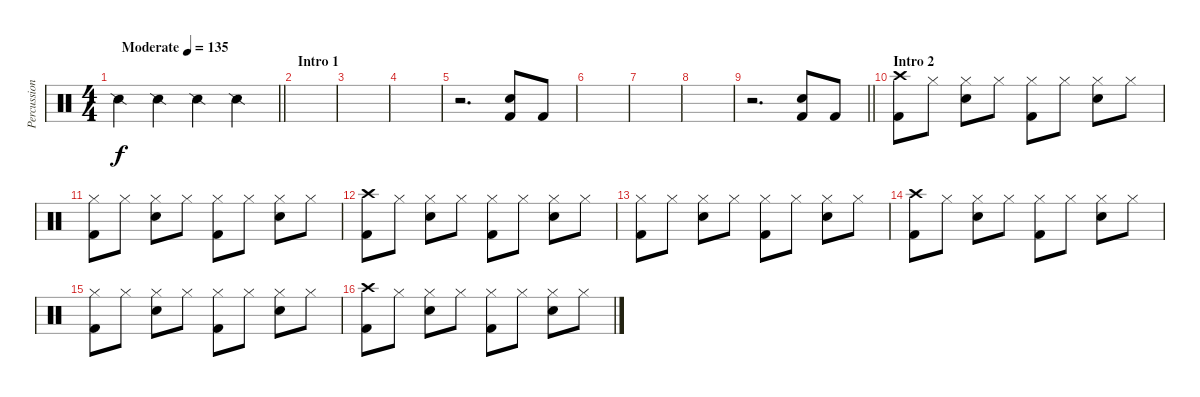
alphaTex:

\track ("Percussion" "Percussion") {instrument percussion}
\staff {score}
\articulation defaults
\ts (4 4)
\tempo (135 "Moderate")
\clef neutral
\barLineRight lightlight
\ks c "Snare (side stick) 2".4{dy f} "Snare (side stick) 2".4 "Snare (side stick) 2".4 "Snare (side stick) 2".4
|
\section ("" "Intro 1")
|
|
|
r.2{d} ("Electric Snare (hit)" "Kick (hit) 2").8 "Kick (hit) 2".8 |
|
|
|
\barLineRight lightlight
r.2{d} ("Electric Snare (hit)" "Kick (hit) 2").8 "Kick (hit) 2".8 |
\section ("" "Intro 2")
("Crash high (hit)" "Kick (hit) 2").8 "Hi-Hat (closed)".8 ("Hi-Hat (closed)" "Electric Snare (hit)").8 "Hi-Hat (closed)".8 ("Hi-Hat (closed)" "Kick (hit) 2").8 "Hi-Hat (closed)".8 ("Hi-Hat (closed)" "Electric Snare (hit)").8 "Hi-Hat (closed)".8 |
("Hi-Hat (closed)" "Kick (hit) 2").8 "Hi-Hat (closed)".8 ("Hi-Hat (closed)" "Electric Snare (hit)").8 "Hi-Hat (closed)".8 ("Hi-Hat (closed)" "Kick (hit) 2").8 "Hi-Hat (closed)".8 ("Hi-Hat (closed)" "Electric Snare (hit)").8 "Hi-Hat (closed)".8 |
("Crash high (hit)" "Kick (hit) 2").8 "Hi-Hat (closed)".8 ("Hi-Hat (closed)" "Electric Snare (hit)").8 "Hi-Hat (closed)".8 ("Hi-Hat (closed)" "Kick (hit) 2").8 "Hi-Hat (closed)".8 ("Hi-Hat (closed)" "Electric Snare (hit)").8 "Hi-Hat (closed)".8 |
("Hi-Hat (closed)" "Kick (hit) 2").8 "Hi-Hat (closed)".8 ("Hi-Hat (closed)" "Electric Snare (hit)").8 "Hi-Hat (closed)".8 ("Hi-Hat (closed)" "Kick (hit) 2").8 "Hi-Hat (closed)".8 ("Hi-Hat (closed)" "Electric Snare (hit)").8 "Hi-Hat (closed)".8 |
("Crash high (hit)" "Kick (hit) 2").8 "Hi-Hat (closed)".8 ("Hi-Hat (closed)" "Electric Snare (hit)").8 "Hi-Hat (closed)".8 ("Hi-Hat (closed)" "Kick (hit) 2").8 "Hi-Hat (closed)".8 ("Hi-Hat (closed)" "Electric Snare (hit)").8 "Hi-Hat (closed)".8 |
("Hi-Hat (closed)" "Kick (hit) 2").8 "Hi-Hat (closed)".8 ("Hi-Hat (closed)" "Electric Snare (hit)").8 "Hi-Hat (closed)".8 ("Hi-Hat (closed)" "Kick (hit) 2").8 "Hi-Hat (closed)".8 ("Hi-Hat (closed)" "Electric Snare (hit)").8 "Hi-Hat (closed)".8 |
("Crash high (hit)" "Kick (hit) 2").8 "Hi-Hat (closed)".8 ("Hi-Hat (closed)" "Electric Snare (hit)").8 "Hi-Hat (closed)".8 ("Hi-Hat (closed)" "Kick (hit) 2").8 "Hi-Hat (closed)".8 ("Hi-Hat (closed)" "Electric Snare (hit)").8 "Hi-Hat (closed)".8
